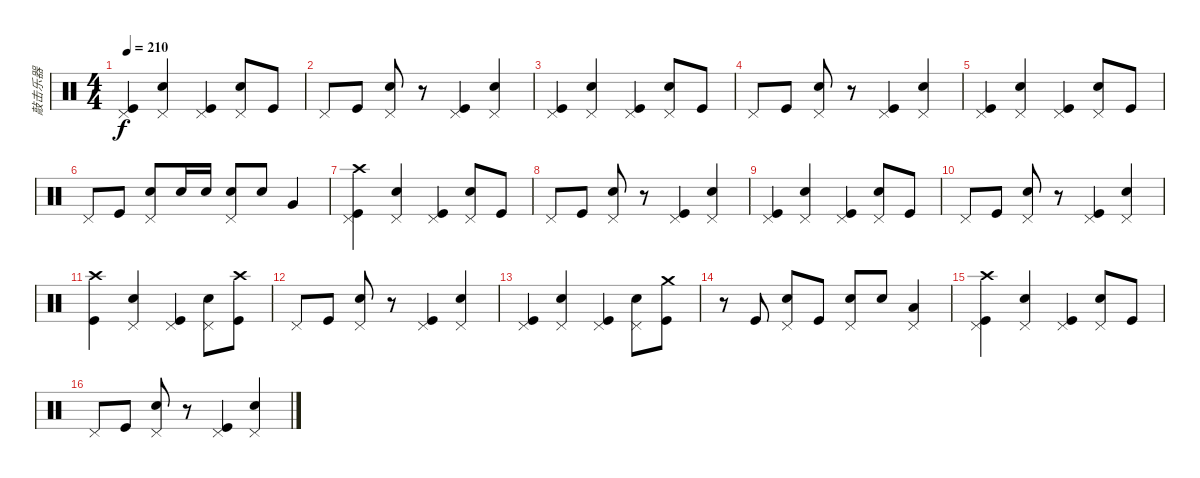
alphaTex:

\track ("敲击乐器" "敲击乐器") {instrument percussion}
\staff {score}
\articulation defaults
\ts (4 4)
\tempo 210
\clef neutral
\ks c
("Pedal Hi-Hat (hit)" "Kick (hit)").4{dy f} ("Pedal Hi-Hat (hit)" "Snare (hit) 2").4 ("Pedal Hi-Hat (hit)" "Kick (hit)").4 ("Pedal Hi-Hat (hit)" "Snare (hit) 2").8 "Kick (hit)".8 |
"Pedal Hi-Hat (hit)".8 "Kick (hit)".8 ("Pedal Hi-Hat (hit)" "Snare (hit) 2").8 r.8 ("Kick (hit)" "Pedal Hi-Hat (hit)").4 ("Snare (hit) 2" "Pedal Hi-Hat (hit)").4 |
("Pedal Hi-Hat (hit)" "Kick (hit)").4 ("Pedal Hi-Hat (hit)" "Snare (hit) 2").4 ("Pedal Hi-Hat (hit)" "Kick (hit)").4 ("Pedal Hi-Hat (hit)" "Snare (hit) 2").8 "Kick (hit)".8 |
"Pedal Hi-Hat (hit)".8 "Kick (hit)".8 ("Pedal Hi-Hat (hit)" "Snare (hit) 2").8 r.8 ("Kick (hit)" "Pedal Hi-Hat (hit)").4 ("Snare (hit) 2" "Pedal Hi-Hat (hit)").4 |
("Pedal Hi-Hat (hit)" "Kick (hit)").4 ("Pedal Hi-Hat (hit)" "Snare (hit) 2").4 ("Pedal Hi-Hat (hit)" "Kick (hit)").4 ("Pedal Hi-Hat (hit)" "Snare (hit) 2").8 "Kick (hit)".8 |
"Pedal Hi-Hat (hit)".8 "Kick (hit)".8 ("Pedal Hi-Hat (hit)" "Snare (hit) 2").8 "Snare (hit) 2".16 "Snare (hit) 2".16 ("Pedal Hi-Hat (hit)" "Snare (hit) 2").8 "Snare (hit) 2".8 "Very Low Tom (hit)".4 |
("Crash high (hit)" "Pedal Hi-Hat (hit)" "Kick (hit)").4 ("Pedal Hi-Hat (hit)" "Snare (hit) 2").4 ("Pedal Hi-Hat (hit)" "Kick (hit)").4 ("Pedal Hi-Hat (hit)" "Snare (hit) 2").8 "Kick (hit)".8 |
"Pedal Hi-Hat (hit)".8 "Kick (hit)".8 ("Pedal Hi-Hat (hit)" "Snare (hit) 2").8 r.8 ("Kick (hit)" "Pedal Hi-Hat (hit)").4 ("Snare (hit) 2" "Pedal Hi-Hat (hit)").4 |
("Pedal Hi-Hat (hit)" "Kick (hit)").4 ("Pedal Hi-Hat (hit)" "Snare (hit) 2").4 ("Pedal Hi-Hat (hit)" "Kick (hit)").4 ("Pedal Hi-Hat (hit)" "Snare (hit) 2").8 "Kick (hit)".8 |
"Pedal Hi-Hat (hit)".8 "Kick (hit)".8 ("Pedal Hi-Hat (hit)" "Snare (hit) 2").8 r.8 ("Kick (hit)" "Pedal Hi-Hat (hit)").4 ("Snare (hit) 2" "Pedal Hi-Hat (hit)").4 |
("Crash high (hit)" "Kick (hit)").4 ("Pedal Hi-Hat (hit)" "Snare (hit) 2").4 ("Pedal Hi-Hat (hit)" "Kick (hit)").4 ("Pedal Hi-Hat (hit)" "Snare (hit) 2").8 ("Crash high (hit)" "Kick (hit)").8 |
"Pedal Hi-Hat (hit)".8 "Kick (hit)".8 ("Pedal Hi-Hat (hit)" "Snare (hit) 2").8 r.8 ("Kick (hit)" "Pedal Hi-Hat (hit)").4 ("Snare (hit) 2" "Pedal Hi-Hat (hit)").4 |
("Pedal Hi-Hat (hit)" "Kick (hit)").4 ("Pedal Hi-Hat (hit)" "Snare (hit) 2").4 ("Pedal Hi-Hat (hit)" "Kick (hit)").4 ("Pedal Hi-Hat (hit)" "Snare (hit) 2").8 ("Crash medium (hit)" "Kick (hit)").8 |
r.8 "Kick (hit)".8 ("Pedal Hi-Hat (hit)" "Snare (hit) 2").8 "Kick (hit)".8 ("Pedal Hi-Hat (hit)" "Snare (hit) 2").8 "Snare (hit) 2".8 ("Low Floor Tom (hit)" "Pedal Hi-Hat (hit)").4 |
("Crash high (hit)" "Pedal Hi-Hat (hit)" "Kick (hit)").4 ("Pedal Hi-Hat (hit)" "Snare (hit) 2").4 ("Pedal Hi-Hat (hit)" "Kick (hit)").4 ("Pedal Hi-Hat (hit)" "Snare (hit) 2").8 "Kick (hit)".8 |
"Pedal Hi-Hat (hit)".8 "Kick (hit)".8 ("Pedal Hi-Hat (hit)" "Snare (hit) 2").8 r.8 ("Kick (hit)" "Pedal Hi-Hat (hit)").4 ("Snare (hit) 2" "Pedal Hi-Hat (hit)").4
